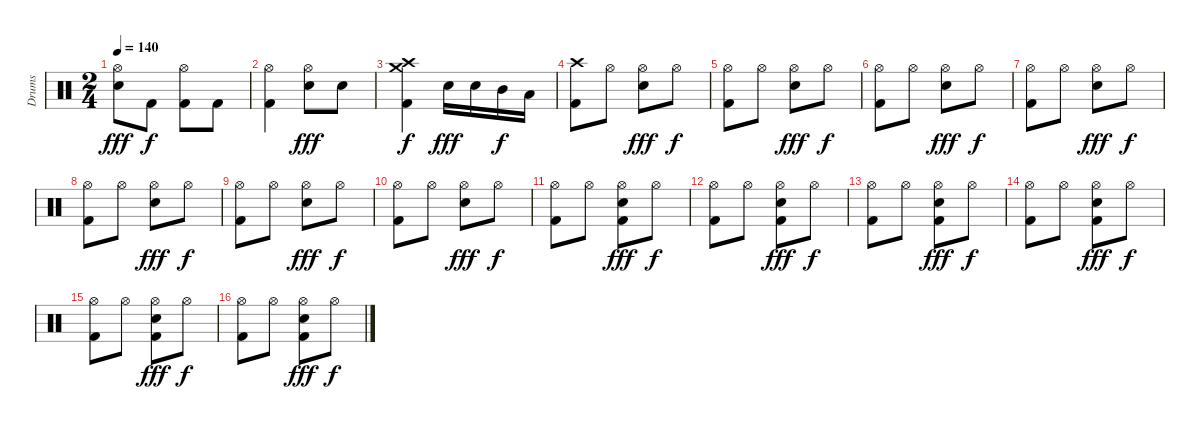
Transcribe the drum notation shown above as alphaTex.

\track ("Drums" "Drums") {instrument percussion}
\staff {score}
\articulation defaults
\ts (2 4)
\tempo 140
\clef neutral
\ks c
("Hi-Hat (open)" "Snare (hit) 2").8{dy fff} "Kick (hit) 2".8{dy f} ("Hi-Hat (open)" "Kick (hit) 2").8 "Kick (hit) 2".8 |
("Hi-Hat (open)" "Kick (hit) 2").4 ("Hi-Hat (open)" "Snare (hit) 2").8{dy fff} "Snare (hit) 2".8 |
("Crash high (hit)" "Crash medium (hit)" "Kick (hit) 2").4{dy f} "Snare (hit) 2".16{dy fff} "Snare (hit) 2".16 "Mid Tom (hit)".16{dy f} "Low Tom (hit)".16 |
("Crash high (hit)" "Kick (hit) 2").8 "Hi-Hat (open)".8 ("Hi-Hat (open)" "Snare (hit) 2").8{dy fff} "Hi-Hat (open)".8{dy f} |
("Hi-Hat (open)" "Kick (hit) 2").8 "Hi-Hat (open)".8 ("Hi-Hat (open)" "Snare (hit) 2").8{dy fff} "Hi-Hat (open)".8{dy f} |
("Hi-Hat (open)" "Kick (hit) 2").8 "Hi-Hat (open)".8 ("Hi-Hat (open)" "Snare (hit) 2").8{dy fff} "Hi-Hat (open)".8{dy f} |
("Hi-Hat (open)" "Kick (hit) 2").8 "Hi-Hat (open)".8 ("Hi-Hat (open)" "Snare (hit) 2").8{dy fff} "Hi-Hat (open)".8{dy f} |
("Hi-Hat (open)" "Kick (hit) 2").8 "Hi-Hat (open)".8 ("Hi-Hat (open)" "Snare (hit) 2").8{dy fff} "Hi-Hat (open)".8{dy f} |
("Hi-Hat (open)" "Kick (hit) 2").8 "Hi-Hat (open)".8 ("Hi-Hat (open)" "Snare (hit) 2").8{dy fff} "Hi-Hat (open)".8{dy f} |
("Hi-Hat (open)" "Kick (hit) 2").8 "Hi-Hat (open)".8 ("Hi-Hat (open)" "Snare (hit) 2").8{dy fff} "Hi-Hat (open)".8{dy f} |
("Hi-Hat (open)" "Kick (hit) 2").8 "Hi-Hat (open)".8 ("Hi-Hat (open)" "Snare (hit) 2" "Kick (hit) 2").8{dy fff} "Hi-Hat (open)".8{dy f} |
("Hi-Hat (open)" "Kick (hit) 2").8 "Hi-Hat (open)".8 ("Hi-Hat (open)" "Snare (hit) 2" "Kick (hit) 2").8{dy fff} "Hi-Hat (open)".8{dy f} |
("Hi-Hat (open)" "Kick (hit) 2").8 "Hi-Hat (open)".8 ("Hi-Hat (open)" "Snare (hit) 2" "Kick (hit) 2").8{dy fff} "Hi-Hat (open)".8{dy f} |
("Hi-Hat (open)" "Kick (hit) 2").8 "Hi-Hat (open)".8 ("Hi-Hat (open)" "Snare (hit) 2" "Kick (hit) 2").8{dy fff} "Hi-Hat (open)".8{dy f} |
("Hi-Hat (open)" "Kick (hit) 2").8 "Hi-Hat (open)".8 ("Hi-Hat (open)" "Snare (hit) 2" "Kick (hit) 2").8{dy fff} "Hi-Hat (open)".8{dy f} |
("Hi-Hat (open)" "Kick (hit) 2").8 "Hi-Hat (open)".8 ("Hi-Hat (open)" "Snare (hit) 2" "Kick (hit) 2").8{dy fff} "Hi-Hat (open)".8{dy f}
